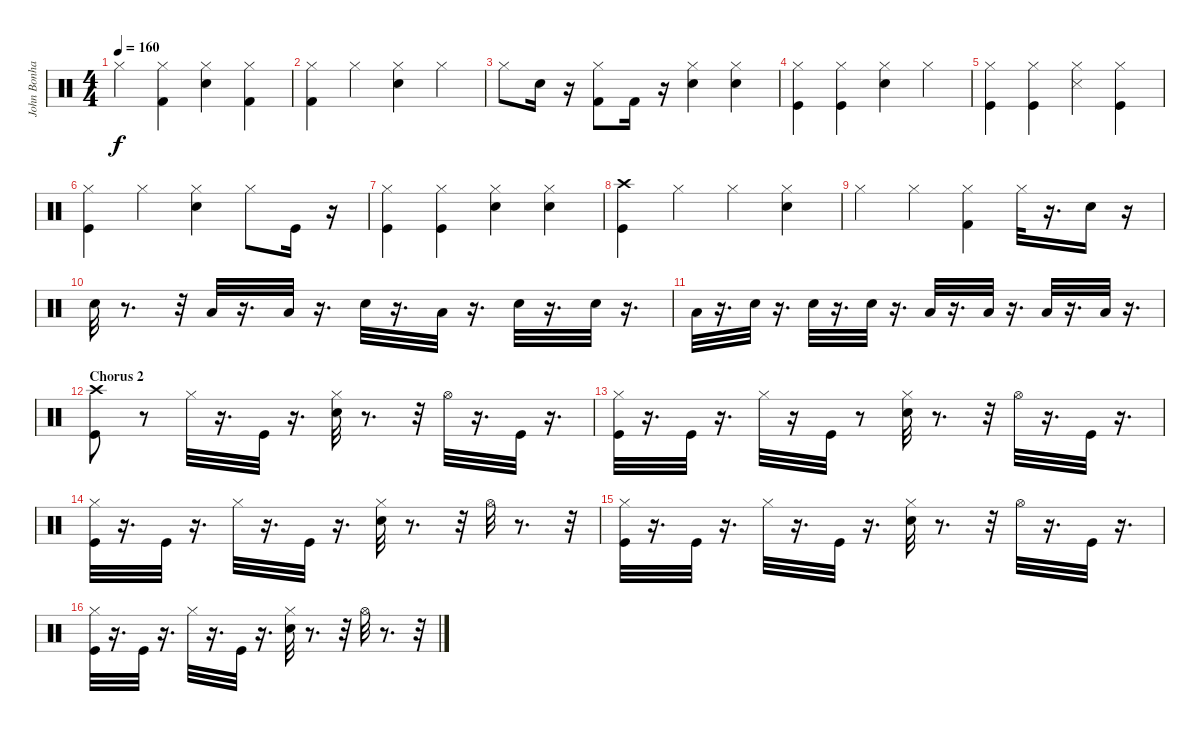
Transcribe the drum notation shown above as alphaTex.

\track ("John Bonham" "John Bonha") {instrument percussion}
\staff {score}
\articulation defaults
\ts (4 4)
\tempo 160
\clef neutral
\ks c "Hi-Hat (closed)".4{dy f}
("Hi-Hat (closed)" "Kick (hit) 2").4 ("Hi-Hat (closed)" "Snare (hit) 2").4 ("Hi-Hat (closed)" "Kick (hit) 2").4 |
("Kick (hit) 2" "Hi-Hat (closed)").4 "Hi-Hat (closed)".4 ("Snare (hit) 2" "Hi-Hat (closed)").4 "Hi-Hat (closed)".4 |
"Hi-Hat (closed)".8 "Snare (hit) 2".16 r.16 ("Kick (hit) 2" "Hi-Hat (closed)").8 "Kick (hit) 2".16 r.16 ("Snare (hit) 2" "Hi-Hat (closed)").4 ("Snare (hit) 2" "Hi-Hat (closed)").4 |
("Kick (hit)" "Hi-Hat (closed)").4 ("Kick (hit)" "Hi-Hat (closed)").4 ("Snare (hit) 2" "Hi-Hat (closed)").4 "Hi-Hat (closed)".4 |
("Kick (hit)" "Hi-Hat (closed)").4 ("Kick (hit)" "Hi-Hat (closed)").4 ("Snare (side stick) 3" "Hi-Hat (closed)").4 ("Kick (hit)" "Hi-Hat (closed)").4 |
("Kick (hit)" "Hi-Hat (closed)").4 "Hi-Hat (closed)".4 ("Snare (hit) 2" "Hi-Hat (closed)").4 "Hi-Hat (closed)".8 "Kick (hit)".16 r.16 |
("Kick (hit)" "Hi-Hat (closed)").4 ("Kick (hit)" "Hi-Hat (closed)").4 ("Snare (hit) 2" "Hi-Hat (closed)").4 ("Snare (hit) 2" "Hi-Hat (closed)").4 |
("Kick (hit)" "Crash high (hit)").4 "Hi-Hat (closed)".4 "Hi-Hat (closed)".4 ("Snare (hit) 2" "Hi-Hat (closed)").4 |
"Hi-Hat (closed)".4 "Hi-Hat (closed)".4 ("Hi-Hat (closed)" "Kick (hit) 2").4 "Hi-Hat (closed)".32 r.16{d} "Snare (hit) 2".16 r.16 |
"Snare (hit) 2".32 r.8{d} r.32 "Low Tom (hit)".32 r.16{d} "Low Tom (hit)".32 r.16{d} "Snare (hit) 2".32 r.16{d} "Low Tom (hit)".32 r.16{d} "Snare (hit) 2".32 r.16{d} "Snare (hit) 2".32 r.16{d} |
"Low Tom (hit)".32 r.16{d} "Snare (hit) 2".32 r.16{d} "Snare (hit) 2".32 r.16{d} "Snare (hit) 2".32 r.16{d} "Low Tom (hit)".32 r.16{d} "Low Tom (hit)".32 r.16{d} "Low Floor Tom (hit)".32 r.16{d} "Low Floor Tom (hit)".32 r.16{d} |
\section ("" "Chorus 2")
("Kick (hit)" "Crash high (hit)").8 r.8 "Hi-Hat (closed)".32 r.16{d} "Kick (hit)".32 r.16{d} ("Snare (hit) 2" "Hi-Hat (closed)").32 r.8{d} r.32 "Hi-Hat (open)".32 r.16{d} "Kick (hit)".32 r.16{d} |
("Hi-Hat (closed)" "Kick (hit)").32 r.16{d} "Kick (hit)".32 r.16{d} "Hi-Hat (closed)".32 r.16 "Kick (hit)".32 r.8 ("Snare (hit) 2" "Hi-Hat (closed)").32 r.8{d} r.32 "Hi-Hat (open)".32 r.16{d} "Kick (hit)".32 r.16{d} |
("Hi-Hat (closed)" "Kick (hit)").32 r.16{d} "Kick (hit)".32 r.16{d} "Hi-Hat (closed)".32 r.16{d} "Kick (hit)".32 r.16{d} ("Hi-Hat (closed)" "Snare (hit) 2").32 r.8{d} r.32 "Hi-Hat (open)".32 r.8{d} r.32 |
("Hi-Hat (closed)" "Kick (hit)").32 r.16{d} "Kick (hit)".32 r.16{d} "Hi-Hat (closed)".32 r.16{d} "Kick (hit)".32 r.16{d} ("Hi-Hat (closed)" "Snare (hit) 2").32 r.8{d} r.32 "Hi-Hat (open)".32 r.16{d} "Kick (hit)".32 r.16{d} |
("Hi-Hat (closed)" "Kick (hit)").32 r.16{d} "Kick (hit)".32 r.16{d} "Hi-Hat (closed)".32 r.16{d} "Kick (hit)".32 r.16{d} ("Hi-Hat (closed)" "Snare (hit) 2").32 r.8{d} r.32 "Hi-Hat (open)".32 r.8{d} r.32
